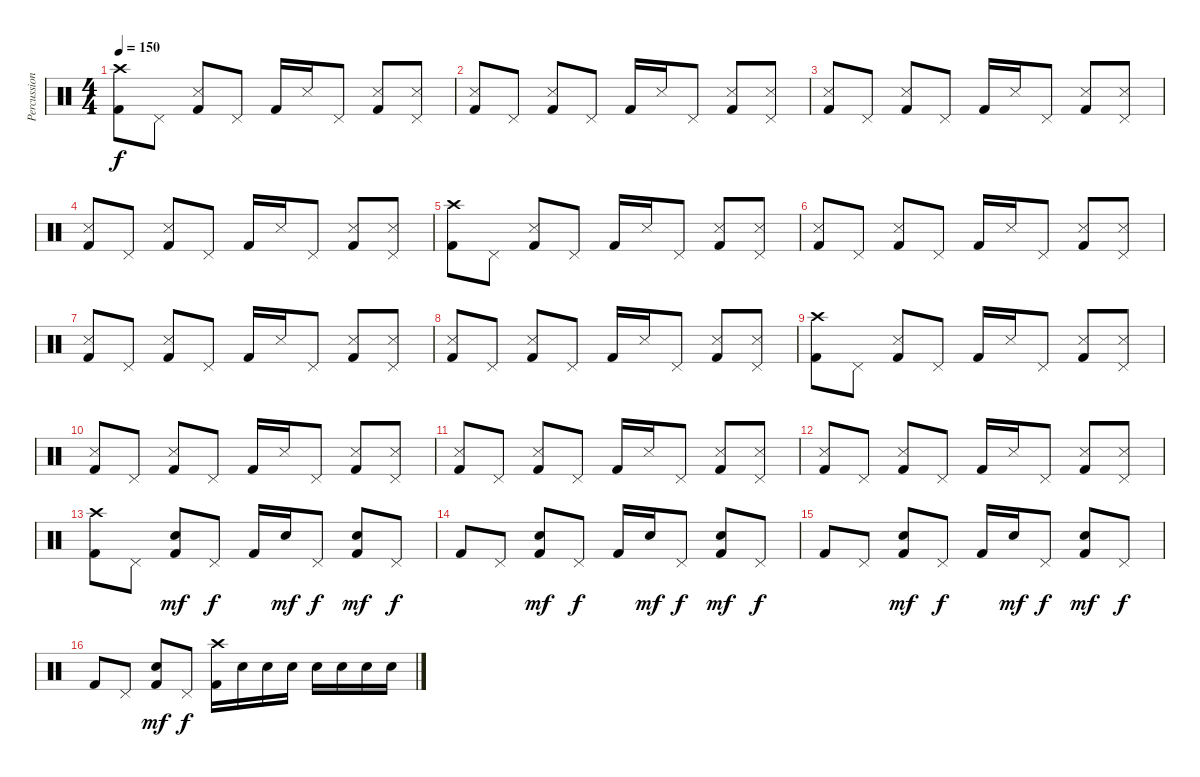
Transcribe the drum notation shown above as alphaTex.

\track ("Percussions" "Percussion") {instrument percussion}
\staff {score}
\articulation defaults
\ts (4 4)
\tempo 150
\clef neutral
\ks c
("Crash high (hit)" "Kick (hit) 2").8{dy f} "Pedal Hi-Hat (hit)".8 ("Snare (side stick) 3" "Kick (hit) 2").8 "Pedal Hi-Hat (hit)".8 "Kick (hit) 2".16 "Snare (side stick) 3".16 "Pedal Hi-Hat (hit)".8 ("Snare (side stick) 3" "Kick (hit) 2").8 ("Snare (side stick) 3" "Pedal Hi-Hat (hit)").8 |
("Snare (side stick) 3" "Kick (hit) 2").8 "Pedal Hi-Hat (hit)".8 ("Snare (side stick) 3" "Kick (hit) 2").8 "Pedal Hi-Hat (hit)".8 "Kick (hit) 2".16 "Snare (side stick) 3".16 "Pedal Hi-Hat (hit)".8 ("Snare (side stick) 3" "Kick (hit) 2").8 ("Snare (side stick) 3" "Pedal Hi-Hat (hit)").8 |
("Snare (side stick) 3" "Kick (hit) 2").8 "Pedal Hi-Hat (hit)".8 ("Snare (side stick) 3" "Kick (hit) 2").8 "Pedal Hi-Hat (hit)".8 "Kick (hit) 2".16 "Snare (side stick) 3".16 "Pedal Hi-Hat (hit)".8 ("Snare (side stick) 3" "Kick (hit) 2").8 ("Snare (side stick) 3" "Pedal Hi-Hat (hit)").8 |
("Snare (side stick) 3" "Kick (hit) 2").8 "Pedal Hi-Hat (hit)".8 ("Snare (side stick) 3" "Kick (hit) 2").8 "Pedal Hi-Hat (hit)".8 "Kick (hit) 2".16 "Snare (side stick) 3".16 "Pedal Hi-Hat (hit)".8 ("Snare (side stick) 3" "Kick (hit) 2").8 ("Snare (side stick) 3" "Pedal Hi-Hat (hit)").8 |
("Crash high (hit)" "Kick (hit) 2").8 "Pedal Hi-Hat (hit)".8 ("Snare (side stick) 3" "Kick (hit) 2").8 "Pedal Hi-Hat (hit)".8 "Kick (hit) 2".16 "Snare (side stick) 3".16 "Pedal Hi-Hat (hit)".8 ("Snare (side stick) 3" "Kick (hit) 2").8 ("Snare (side stick) 3" "Pedal Hi-Hat (hit)").8 |
("Snare (side stick) 3" "Kick (hit) 2").8 "Pedal Hi-Hat (hit)".8 ("Snare (side stick) 3" "Kick (hit) 2").8 "Pedal Hi-Hat (hit)".8 "Kick (hit) 2".16 "Snare (side stick) 3".16 "Pedal Hi-Hat (hit)".8 ("Snare (side stick) 3" "Kick (hit) 2").8 ("Snare (side stick) 3" "Pedal Hi-Hat (hit)").8 |
("Snare (side stick) 3" "Kick (hit) 2").8 "Pedal Hi-Hat (hit)".8 ("Snare (side stick) 3" "Kick (hit) 2").8 "Pedal Hi-Hat (hit)".8 "Kick (hit) 2".16 "Snare (side stick) 3".16 "Pedal Hi-Hat (hit)".8 ("Snare (side stick) 3" "Kick (hit) 2").8 ("Snare (side stick) 3" "Pedal Hi-Hat (hit)").8 |
("Snare (side stick) 3" "Kick (hit) 2").8 "Pedal Hi-Hat (hit)".8 ("Snare (side stick) 3" "Kick (hit) 2").8 "Pedal Hi-Hat (hit)".8 "Kick (hit) 2".16 "Snare (side stick) 3".16 "Pedal Hi-Hat (hit)".8 ("Snare (side stick) 3" "Kick (hit) 2").8 ("Snare (side stick) 3" "Pedal Hi-Hat (hit)").8 |
("Crash high (hit)" "Kick (hit) 2").8 "Pedal Hi-Hat (hit)".8 ("Snare (side stick) 3" "Kick (hit) 2").8 "Pedal Hi-Hat (hit)".8 "Kick (hit) 2".16 "Snare (side stick) 3".16 "Pedal Hi-Hat (hit)".8 ("Snare (side stick) 3" "Kick (hit) 2").8 ("Snare (side stick) 3" "Pedal Hi-Hat (hit)").8 |
("Snare (side stick) 3" "Kick (hit) 2").8 "Pedal Hi-Hat (hit)".8 ("Snare (side stick) 3" "Kick (hit) 2").8 "Pedal Hi-Hat (hit)".8 "Kick (hit) 2".16 "Snare (side stick) 3".16 "Pedal Hi-Hat (hit)".8 ("Snare (side stick) 3" "Kick (hit) 2").8 ("Snare (side stick) 3" "Pedal Hi-Hat (hit)").8 |
("Snare (side stick) 3" "Kick (hit) 2").8 "Pedal Hi-Hat (hit)".8 ("Snare (side stick) 3" "Kick (hit) 2").8 "Pedal Hi-Hat (hit)".8 "Kick (hit) 2".16 "Snare (side stick) 3".16 "Pedal Hi-Hat (hit)".8 ("Snare (side stick) 3" "Kick (hit) 2").8 ("Snare (side stick) 3" "Pedal Hi-Hat (hit)").8 |
("Snare (side stick) 3" "Kick (hit) 2").8 "Pedal Hi-Hat (hit)".8 ("Snare (side stick) 3" "Kick (hit) 2").8 "Pedal Hi-Hat (hit)".8 "Kick (hit) 2".16 "Snare (side stick) 3".16 "Pedal Hi-Hat (hit)".8 ("Snare (side stick) 3" "Kick (hit) 2").8 ("Snare (side stick) 3" "Pedal Hi-Hat (hit)").8 |
("Crash high (hit)" "Kick (hit) 2").8 "Pedal Hi-Hat (hit)".8 ("Electric Snare (hit)" "Kick (hit) 2").8{dy mf} "Pedal Hi-Hat (hit)".8{dy f} "Kick (hit) 2".16 "Electric Snare (hit)".16{dy mf} "Pedal Hi-Hat (hit)".8{dy f} ("Electric Snare (hit)" "Kick (hit) 2").8{dy mf} "Pedal Hi-Hat (hit)".8{dy f} |
"Kick (hit) 2".8 "Pedal Hi-Hat (hit)".8 ("Electric Snare (hit)" "Kick (hit) 2").8{dy mf} "Pedal Hi-Hat (hit)".8{dy f} "Kick (hit) 2".16 "Electric Snare (hit)".16{dy mf} "Pedal Hi-Hat (hit)".8{dy f} ("Electric Snare (hit)" "Kick (hit) 2").8{dy mf} "Pedal Hi-Hat (hit)".8{dy f} |
"Kick (hit) 2".8 "Pedal Hi-Hat (hit)".8 ("Electric Snare (hit)" "Kick (hit) 2").8{dy mf} "Pedal Hi-Hat (hit)".8{dy f} "Kick (hit) 2".16 "Electric Snare (hit)".16{dy mf} "Pedal Hi-Hat (hit)".8{dy f} ("Electric Snare (hit)" "Kick (hit) 2").8{dy mf} "Pedal Hi-Hat (hit)".8{dy f} |
"Kick (hit) 2".8 "Pedal Hi-Hat (hit)".8 ("Electric Snare (hit)" "Kick (hit) 2").8{dy mf} "Pedal Hi-Hat (hit)".8{dy f} ("Crash high (hit)" "Kick (hit) 2").16 "Electric Snare (hit)".16 "Electric Snare (hit)".16 "Electric Snare (hit)".16 "Electric Snare (hit)".16 "Electric Snare (hit)".16 "Electric Snare (hit)".16 "Electric Snare (hit)".16
